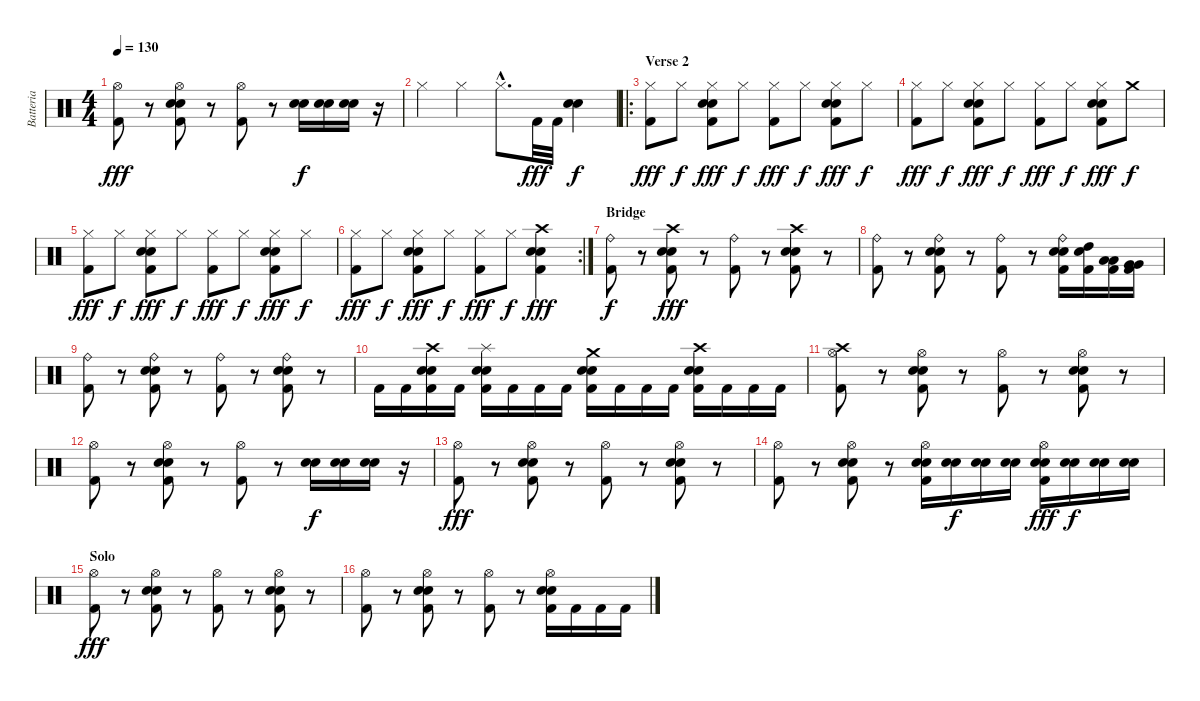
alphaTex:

\track ("Batteria" "Batteria") {instrument percussion}
\staff {score}
\articulation defaults
\ts (4 4)
\tempo 130
\clef neutral
\ks c
("Hi-Hat (open)" "Kick (hit) 2").8{dy fff} r.8 ("Hi-Hat (open)" "Electric Snare (hit)" "Snare (hit) 2" "Kick (hit) 2").8 r.8 ("Hi-Hat (open)" "Kick (hit) 2").8 r.8 ("Electric Snare (hit)" "Snare (hit) 2").16{dy f} ("Electric Snare (hit)" "Snare (hit) 2").16 ("Electric Snare (hit)" "Snare (hit) 2").16 r.16 |
"Hi-Hat (closed)".4 "Hi-Hat (closed)".4 "Hi-Hat (closed)"{hac}.8{d} "Kick (hit) 2".32{dy fff} "Kick (hit) 2".32 ("Electric Snare (hit)" "Snare (hit) 2").4{dy f} |
\ro
\section ("" "Verse 2")
("Hi-Hat (closed)" "Kick (hit) 2").8{dy fff} "Hi-Hat (closed)".8{dy f} ("Hi-Hat (closed)" "Electric Snare (hit)" "Snare (hit) 2" "Kick (hit) 2").8{dy fff} "Hi-Hat (closed)".8{dy f} ("Hi-Hat (closed)" "Kick (hit) 2").8{dy fff} "Hi-Hat (closed)".8{dy f} ("Hi-Hat (closed)" "Electric Snare (hit)" "Snare (hit) 2" "Kick (hit) 2").8{dy fff} "Hi-Hat (closed)".8{dy f} |
("Hi-Hat (closed)" "Kick (hit) 2").8{dy fff} "Hi-Hat (closed)".8{dy f} ("Hi-Hat (closed)" "Electric Snare (hit)" "Snare (hit) 2" "Kick (hit) 2").8{dy fff} "Hi-Hat (closed)".8{dy f} ("Hi-Hat (closed)" "Kick (hit) 2").8{dy fff} "Hi-Hat (closed)".8{dy f} ("Hi-Hat (closed)" "Electric Snare (hit)" "Snare (hit) 2" "Kick (hit) 2").8{dy fff} "Crash medium (hit)".8{dy f} |
("Hi-Hat (closed)" "Kick (hit) 2").8{dy fff} "Hi-Hat (closed)".8{dy f} ("Hi-Hat (closed)" "Electric Snare (hit)" "Snare (hit) 2" "Kick (hit) 2").8{dy fff} "Hi-Hat (closed)".8{dy f} ("Hi-Hat (closed)" "Kick (hit) 2").8{dy fff} "Hi-Hat (closed)".8{dy f} ("Hi-Hat (closed)" "Electric Snare (hit)" "Snare (hit) 2" "Kick (hit) 2").8{dy fff} "Hi-Hat (closed)".8{dy f} |
\rc 2
("Hi-Hat (closed)" "Kick (hit) 2").8{dy fff} "Hi-Hat (closed)".8{dy f} ("Hi-Hat (closed)" "Electric Snare (hit)" "Snare (hit) 2" "Kick (hit) 2").8{dy fff} "Hi-Hat (closed)".8{dy f} ("Hi-Hat (closed)" "Kick (hit) 2").8{dy fff} "Hi-Hat (closed)".8{dy f} ("Crash high (hit)" "Electric Snare (hit)" "Snare (hit) 2" "Kick (hit) 2").4{dy fff} |
\section ("" "Bridge")
("Ride (bell)" "Kick (hit) 2").8{dy f} r.8 ("Crash high (hit)" "Electric Snare (hit)" "Snare (hit) 2" "Kick (hit) 2").8{dy fff} r.8 ("Ride (bell)" "Kick (hit) 2").8 r.8 ("Crash high (hit)" "Electric Snare (hit)" "Snare (hit) 2" "Kick (hit) 2").8 r.8 |
("Ride (bell)" "Kick (hit) 2").8 r.8 ("Ride (bell)" "Electric Snare (hit)" "Snare (hit) 2" "Kick (hit) 2").8 r.8 ("Ride (bell)" "Kick (hit) 2").8 r.8 ("Ride (bell)" "Electric Snare (hit)" "Snare (hit) 2" "Kick (hit) 2").16 ("Electric Snare (hit)" "High Tom (hit)" "Kick (hit) 2").16 ("Low Tom (hit)" "Low Tom (hit)" "Kick (hit) 2").16 ("Very Low Tom (hit)" "Very Low Tom (hit)" "Kick (hit) 2").16 |
("Ride (bell)" "Kick (hit) 2").8 r.8 ("Ride (bell)" "Electric Snare (hit)" "Snare (hit) 2" "Kick (hit) 2").8 r.8 ("Ride (bell)" "Kick (hit) 2").8 r.8 ("Ride (bell)" "Electric Snare (hit)" "Snare (hit) 2" "Kick (hit) 2").8 r.8 |
"Kick (hit) 2".16 "Kick (hit) 2".16 ("Crash high (hit)" "Electric Snare (hit)" "Snare (hit) 2" "Kick (hit) 2").16 "Kick (hit) 2".16 ("Splash (hit)" "Electric Snare (hit)" "Snare (hit) 2" "Kick (hit) 2").16 "Kick (hit) 2".16 "Kick (hit) 2".16 "Kick (hit) 2".16 ("Crash medium (hit)" "Electric Snare (hit)" "Snare (hit) 2" "Kick (hit) 2").16 "Kick (hit) 2".16 "Kick (hit) 2".16 "Kick (hit) 2".16 ("Crash high (hit)" "Electric Snare (hit)" "Snare (hit) 2" "Kick (hit) 2").16 "Kick (hit) 2".16 "Kick (hit) 2".16 "Kick (hit) 2".16 |
("Crash high (hit)" "Hi-Hat (open)" "Kick (hit) 2").8 r.8 ("Hi-Hat (open)" "Electric Snare (hit)" "Snare (hit) 2" "Kick (hit) 2").8 r.8 ("Hi-Hat (open)" "Kick (hit) 2").8 r.8 ("Hi-Hat (open)" "Electric Snare (hit)" "Snare (hit) 2" "Kick (hit) 2").8 r.8 |
("Hi-Hat (open)" "Kick (hit) 2").8 r.8 ("Hi-Hat (open)" "Electric Snare (hit)" "Snare (hit) 2" "Kick (hit) 2").8 r.8 ("Hi-Hat (open)" "Kick (hit) 2").8 r.8 ("Electric Snare (hit)" "Snare (hit) 2").16{dy f} ("Electric Snare (hit)" "Snare (hit) 2").16 ("Electric Snare (hit)" "Snare (hit) 2").16 r.16 |
("Hi-Hat (open)" "Kick (hit) 2").8{dy fff} r.8 ("Hi-Hat (open)" "Electric Snare (hit)" "Snare (hit) 2" "Kick (hit) 2").8 r.8 ("Hi-Hat (open)" "Kick (hit) 2").8 r.8 ("Hi-Hat (open)" "Electric Snare (hit)" "Snare (hit) 2" "Kick (hit) 2").8 r.8 |
("Hi-Hat (open)" "Kick (hit) 2").8 r.8 ("Hi-Hat (open)" "Electric Snare (hit)" "Snare (hit) 2" "Kick (hit) 2").8 r.8 ("Hi-Hat (open)" "Electric Snare (hit)" "Snare (hit) 2" "Kick (hit) 2").16 ("Electric Snare (hit)" "Snare (hit) 2").16{dy f} ("Electric Snare (hit)" "Snare (hit) 2").16 ("Electric Snare (hit)" "Snare (hit) 2").16 ("Hi-Hat (open)" "Electric Snare (hit)" "Snare (hit) 2" "Kick (hit) 2").16{dy fff} ("Electric Snare (hit)" "Snare (hit) 2").16{dy f} ("Electric Snare (hit)" "Snare (hit) 2").16 ("Electric Snare (hit)" "Snare (hit) 2").16 |
\section ("" "Solo")
("Hi-Hat (open)" "Kick (hit) 2").8{dy fff} r.8 ("Hi-Hat (open)" "Electric Snare (hit)" "Snare (hit) 2" "Kick (hit) 2").8 r.8 ("Hi-Hat (open)" "Kick (hit) 2").8 r.8 ("Hi-Hat (open)" "Electric Snare (hit)" "Snare (hit) 2" "Kick (hit) 2").8 r.8 |
("Hi-Hat (open)" "Kick (hit) 2").8 r.8 ("Hi-Hat (open)" "Electric Snare (hit)" "Snare (hit) 2" "Kick (hit) 2").8 r.8 ("Hi-Hat (open)" "Kick (hit) 2").8 r.8 ("Hi-Hat (open)" "Electric Snare (hit)" "Snare (hit) 2" "Kick (hit) 2").16 "Kick (hit) 2".16 "Kick (hit) 2".16 "Kick (hit) 2".16
